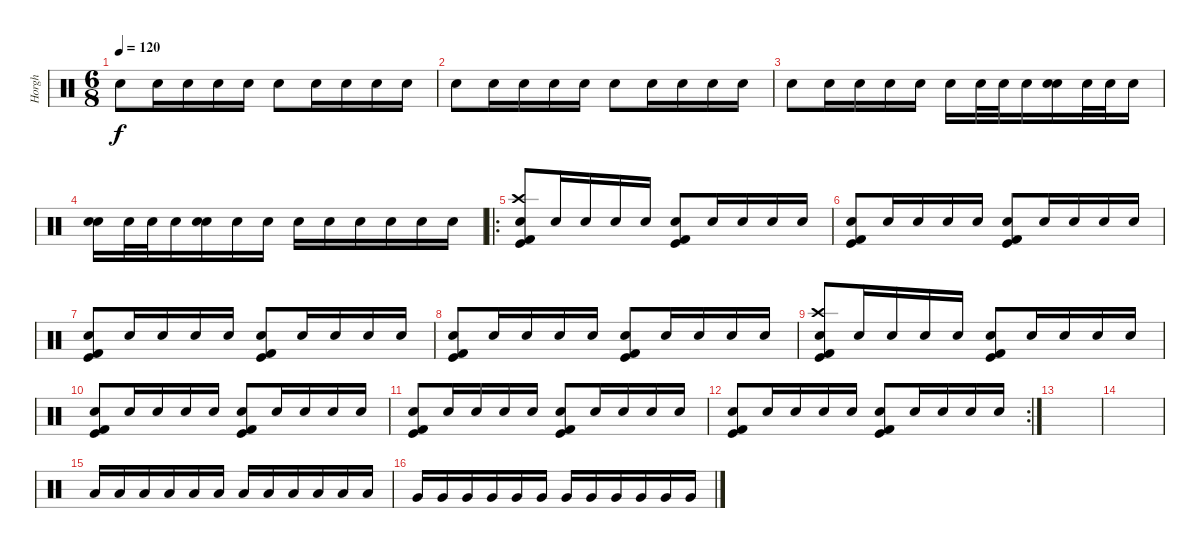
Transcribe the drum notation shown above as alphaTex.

\track ("Horgh" "Horgh") {instrument percussion}
\staff {score}
\articulation defaults
\ts (6 8)
\tempo 120
\clef neutral
\ks c "Electric Snare (hit)".8{dy f} "Electric Snare (hit)".16 "Electric Snare (hit)".16 "Electric Snare (hit)".16 "Electric Snare (hit)".16 "Electric Snare (hit)".8 "Electric Snare (hit)".16 "Electric Snare (hit)".16 "Electric Snare (hit)".16 "Electric Snare (hit)".16
|
"Electric Snare (hit)".8 "Electric Snare (hit)".16 "Electric Snare (hit)".16 "Electric Snare (hit)".16 "Electric Snare (hit)".16 "Electric Snare (hit)".8 "Electric Snare (hit)".16 "Electric Snare (hit)".16 "Electric Snare (hit)".16 "Electric Snare (hit)".16 |
"Electric Snare (hit)".8 "Electric Snare (hit)".16 "Electric Snare (hit)".16 "Electric Snare (hit)".16 "Electric Snare (hit)".16 "Electric Snare (hit)".16 "Electric Snare (hit)".32 "Electric Snare (hit)".32 "Electric Snare (hit)".16 ("Snare (hit) 2" "Electric Snare (hit)").16 "Electric Snare (hit)".32 "Electric Snare (hit)".32 "Electric Snare (hit)".16 |
("Snare (hit) 2" "Electric Snare (hit)").16 "Electric Snare (hit)".32 "Electric Snare (hit)".32 "Electric Snare (hit)".16 ("Snare (hit) 2" "Electric Snare (hit)").16 "Electric Snare (hit)".16 "Electric Snare (hit)".16 "Electric Snare (hit)".16 "Electric Snare (hit)".16 "Electric Snare (hit)".16 "Electric Snare (hit)".16 "Electric Snare (hit)".16 "Electric Snare (hit)".16 |
\ro
("Crash high (hit)" "Electric Snare (hit)" "Kick (hit) 2" "Kick (hit)").8 "Electric Snare (hit)".16 "Electric Snare (hit)".16 "Electric Snare (hit)".16 "Electric Snare (hit)".16 ("Electric Snare (hit)" "Kick (hit) 2" "Kick (hit)").8 "Electric Snare (hit)".16 "Electric Snare (hit)".16 "Electric Snare (hit)".16 "Electric Snare (hit)".16 |
("Electric Snare (hit)" "Kick (hit) 2" "Kick (hit)").8 "Electric Snare (hit)".16 "Electric Snare (hit)".16 "Electric Snare (hit)".16 "Electric Snare (hit)".16 ("Electric Snare (hit)" "Kick (hit) 2" "Kick (hit)").8 "Electric Snare (hit)".16 "Electric Snare (hit)".16 "Electric Snare (hit)".16 "Electric Snare (hit)".16 |
("Electric Snare (hit)" "Kick (hit) 2" "Kick (hit)").8 "Electric Snare (hit)".16 "Electric Snare (hit)".16 "Electric Snare (hit)".16 "Electric Snare (hit)".16 ("Electric Snare (hit)" "Kick (hit) 2" "Kick (hit)").8 "Electric Snare (hit)".16 "Electric Snare (hit)".16 "Electric Snare (hit)".16 "Electric Snare (hit)".16 |
("Electric Snare (hit)" "Kick (hit) 2" "Kick (hit)").8 "Electric Snare (hit)".16 "Electric Snare (hit)".16 "Electric Snare (hit)".16 "Electric Snare (hit)".16 ("Electric Snare (hit)" "Kick (hit) 2" "Kick (hit)").8 "Electric Snare (hit)".16 "Electric Snare (hit)".16 "Electric Snare (hit)".16 "Electric Snare (hit)".16 |
("Crash high (hit)" "Electric Snare (hit)" "Kick (hit) 2" "Kick (hit)").8 "Electric Snare (hit)".16 "Electric Snare (hit)".16 "Electric Snare (hit)".16 "Electric Snare (hit)".16 ("Electric Snare (hit)" "Kick (hit) 2" "Kick (hit)").8 "Electric Snare (hit)".16 "Electric Snare (hit)".16 "Electric Snare (hit)".16 "Electric Snare (hit)".16 |
("Electric Snare (hit)" "Kick (hit) 2" "Kick (hit)").8 "Electric Snare (hit)".16 "Electric Snare (hit)".16 "Electric Snare (hit)".16 "Electric Snare (hit)".16 ("Electric Snare (hit)" "Kick (hit) 2" "Kick (hit)").8 "Electric Snare (hit)".16 "Electric Snare (hit)".16 "Electric Snare (hit)".16 "Electric Snare (hit)".16 |
("Electric Snare (hit)" "Kick (hit) 2" "Kick (hit)").8 "Electric Snare (hit)".16 "Electric Snare (hit)".16 "Electric Snare (hit)".16 "Electric Snare (hit)".16 ("Electric Snare (hit)" "Kick (hit) 2" "Kick (hit)").8 "Electric Snare (hit)".16 "Electric Snare (hit)".16 "Electric Snare (hit)".16 "Electric Snare (hit)".16 |
\rc 2
("Electric Snare (hit)" "Kick (hit) 2" "Kick (hit)").8 "Electric Snare (hit)".16 "Electric Snare (hit)".16 "Electric Snare (hit)".16 "Electric Snare (hit)".16 ("Electric Snare (hit)" "Kick (hit) 2" "Kick (hit)").8 "Electric Snare (hit)".16 "Electric Snare (hit)".16 "Electric Snare (hit)".16 "Electric Snare (hit)".16 |
|
|
"Low Tom (hit)".16 "Low Tom (hit)".16 "Low Tom (hit)".16 "Low Tom (hit)".16 "Low Tom (hit)".16 "Low Tom (hit)".16 "Low Tom (hit)".16 "Low Tom (hit)".16 "Low Tom (hit)".16 "Low Tom (hit)".16 "Low Tom (hit)".16 "Low Tom (hit)".16 |
"Very Low Tom (hit)".16 "Very Low Tom (hit)".16 "Very Low Tom (hit)".16 "Very Low Tom (hit)".16 "Very Low Tom (hit)".16 "Very Low Tom (hit)".16 "Very Low Tom (hit)".16 "Very Low Tom (hit)".16 "Very Low Tom (hit)".16 "Very Low Tom (hit)".16 "Very Low Tom (hit)".16 "Very Low Tom (hit)".16
